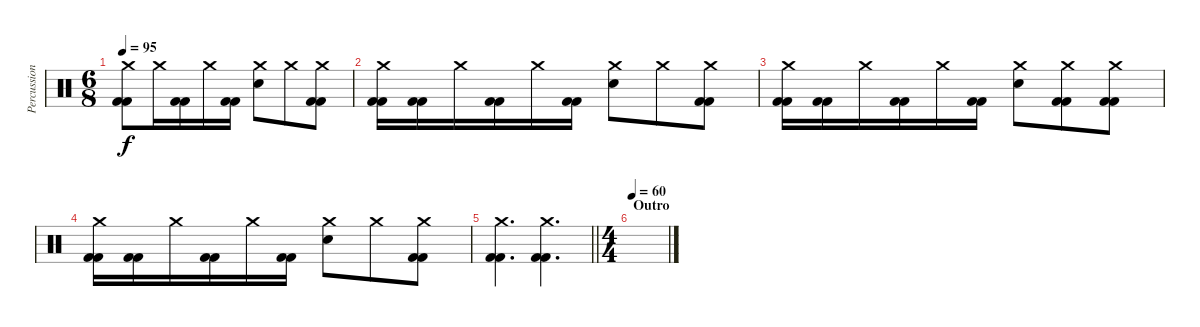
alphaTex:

\track ("Percussion" "Percussion") {instrument percussion}
\staff {score}
\articulation defaults
\ts (6 8)
\tempo 95
\clef neutral
\ks c
("Crash medium (hit)" "Kick (hit) 2" "Kick (hit) 2").8{dy f} "Crash medium (hit)".16 ("Kick (hit) 2" "Kick (hit) 2").16 "Crash medium (hit)".16 ("Kick (hit) 2" "Kick (hit) 2").16 ("Crash medium (hit)" "Electric Snare (hit)").8 "Crash medium (hit)".8 ("Crash medium (hit)" "Kick (hit) 2" "Kick (hit) 2").8 |
("Crash medium (hit)" "Kick (hit) 2" "Kick (hit) 2").16 ("Kick (hit) 2" "Kick (hit) 2").16 "Crash medium (hit)".16 ("Kick (hit) 2" "Kick (hit) 2").16 "Crash medium (hit)".16 ("Kick (hit) 2" "Kick (hit) 2").16 ("Crash medium (hit)" "Electric Snare (hit)").8 "Crash medium (hit)".8 ("Crash medium (hit)" "Kick (hit) 2" "Kick (hit) 2").8 |
("Crash medium (hit)" "Kick (hit) 2" "Kick (hit) 2").16 ("Kick (hit) 2" "Kick (hit) 2").16 "Crash medium (hit)".16 ("Kick (hit) 2" "Kick (hit) 2").16 "Crash medium (hit)".16 ("Kick (hit) 2" "Kick (hit) 2").16 ("Crash medium (hit)" "Electric Snare (hit)").8 ("Crash medium (hit)" "Kick (hit) 2" "Kick (hit) 2").8 ("Crash medium (hit)" "Kick (hit) 2" "Kick (hit) 2").8 |
("Crash medium (hit)" "Kick (hit) 2" "Kick (hit) 2").16 ("Kick (hit) 2" "Kick (hit) 2").16 "Crash medium (hit)".16 ("Kick (hit) 2" "Kick (hit) 2").16 "Crash medium (hit)".16 ("Kick (hit) 2" "Kick (hit) 2").16 ("Crash medium (hit)" "Electric Snare (hit)").8 "Crash medium (hit)".8 ("Crash medium (hit)" "Kick (hit) 2" "Kick (hit) 2").8 |
\barLineRight lightlight
("Crash medium (hit)" "Kick (hit) 2" "Kick (hit) 2").4{d} ("Crash medium (hit)" "Kick (hit) 2" "Kick (hit) 2").4{d} |
\ts (4 4)
\section ("" "Outro")
\tempo 60
